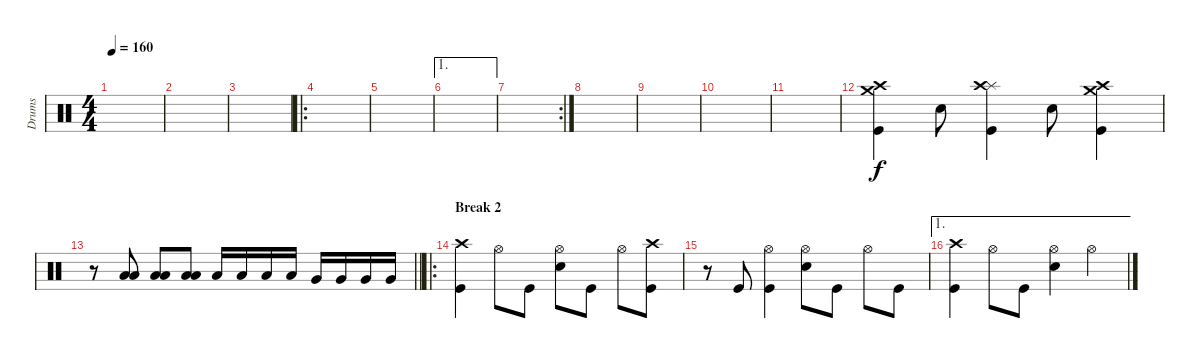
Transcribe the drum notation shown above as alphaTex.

\track ("Drums" "Drums") {instrument percussion}
\staff {score}
\articulation defaults
\ts (4 4)
\tempo 160
\clef neutral
\ks c
|
|
|
\ro
|
|
\ae 1
|
\rc 2
|
|
|
|
|
("Kick (hit)" "Crash medium (hit)" "Crash high (hit)").4 "Electric Snare (hit)".8 ("Kick (hit)" "Splash (hit)" "Crash high (hit)").4 "Electric Snare (hit)".8 ("Kick (hit)" "Crash medium (hit)" "Crash high (hit)").4 |
\barLineRight lightlight
r.8 ("Low Floor Tom (hit)" "Low Tom (hit)").8 ("Low Floor Tom (hit)" "Low Tom (hit)").8 ("Low Floor Tom (hit)" "Low Tom (hit)").8 "Low Tom (hit)".16 "Low Tom (hit)".16 "Low Tom (hit)".16 "Low Tom (hit)".16 "Very Low Tom (hit)".16 "Very Low Tom (hit)".16 "Very Low Tom (hit)".16 "Very Low Tom (hit)".16 |
\ro
\section ("" "Break 2")
("Crash high (hit)" "Kick (hit)").4 "Hi-Hat (open)".8 "Kick (hit)".8 ("Hi-Hat (open)" "Electric Snare (hit)").8 "Kick (hit)".8 "Hi-Hat (open)".8 ("Crash high (hit)" "Kick (hit)").8 |
r.8 "Kick (hit)".8 ("Hi-Hat (open)" "Kick (hit)").4 ("Hi-Hat (open)" "Electric Snare (hit)").8 "Kick (hit)".8 "Hi-Hat (open)".8 "Kick (hit)".8 |
\ae 1
("Crash high (hit)" "Kick (hit)").4 "Hi-Hat (open)".8 "Kick (hit)".8 ("Hi-Hat (open)" "Electric Snare (hit)").4 "Hi-Hat (open)".4
